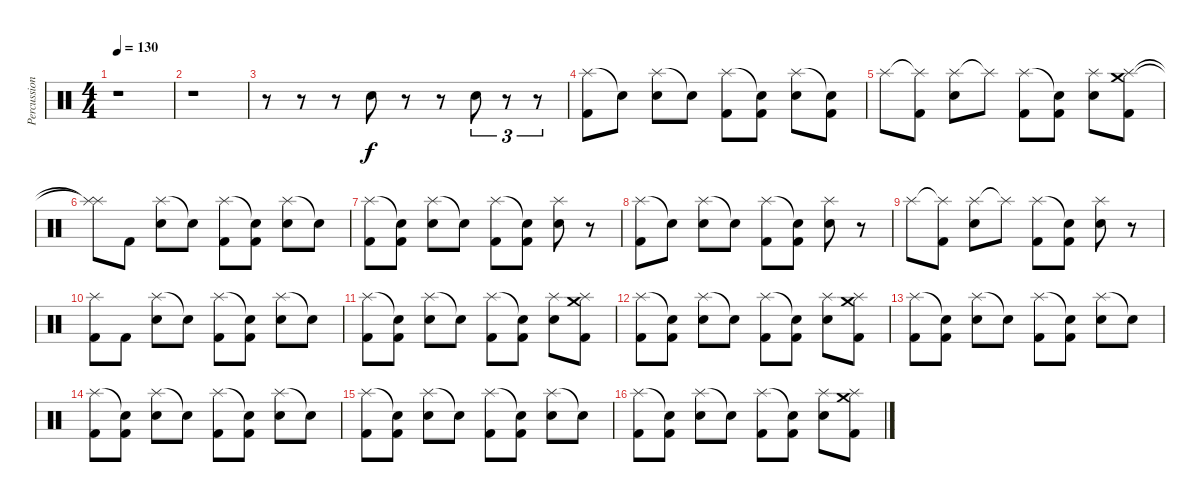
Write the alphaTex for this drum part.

\track ("Percussion" "Percussion") {instrument percussion}
\staff {score}
\articulation defaults
\ts (4 4)
\tempo 130
\clef neutral
\ks c
r.1{dy f} |
r.1 |
r.8 r.8 r.8 "Electric Snare (hit)".8 r.8 r.8 "Electric Snare (hit)".8{tu (3 2)} r.8{tu (3 2)} r.8{tu (3 2)} |
("Splash (hit)" "Kick (hit) 2").8 "Snare (hit)"{t}.8 ("Splash (hit)" "Electric Snare (hit)").8 "Snare (hit)"{t}.8 ("Splash (hit)" "Kick (hit) 2").8 ("Snare (hit)"{t} "Kick (hit) 2").8 ("Splash (hit)" "Electric Snare (hit)").8 ("Snare (hit)"{t} "Kick (hit) 2").8 |
"Splash (hit)".8 ("Splash (hit)"{t} "Kick (hit) 2").8 ("Splash (hit)" "Electric Snare (hit)").8 "Splash (hit)"{t}.8 ("Splash (hit)" "Kick (hit) 2").8 ("Snare (hit)"{t} "Kick (hit) 2").8 ("Splash (hit)" "Electric Snare (hit)").8 ("Crash medium (hit)" "Splash (hit)" "Kick (hit) 2").8 |
("Splash (hit)"{t} "Splash (hit)"{t}).8 "Kick (hit) 2".8 ("Splash (hit)" "Electric Snare (hit)").8 "Snare (hit)"{t}.8 ("Splash (hit)" "Kick (hit) 2").8 ("Snare (hit)"{t} "Kick (hit) 2").8 ("Splash (hit)" "Electric Snare (hit)").8 "Snare (hit)"{t}.8 |
("Splash (hit)" "Kick (hit) 2").8 ("Snare (hit)"{t} "Kick (hit) 2").8 ("Splash (hit)" "Electric Snare (hit)").8 "Snare (hit)"{t}.8 ("Splash (hit)" "Kick (hit) 2").8 ("Snare (hit)"{t} "Kick (hit) 2").8 ("Splash (hit)" "Electric Snare (hit)").8 r.8 |
("Splash (hit)" "Kick (hit) 2").8 "Snare (hit)"{t}.8 ("Splash (hit)" "Electric Snare (hit)").8 "Snare (hit)"{t}.8 ("Splash (hit)" "Kick (hit) 2").8 ("Snare (hit)"{t} "Kick (hit) 2").8 ("Splash (hit)" "Electric Snare (hit)").8 r.8 |
"Splash (hit)".8 ("Splash (hit)"{t} "Kick (hit) 2").8 ("Splash (hit)" "Electric Snare (hit)").8 "Splash (hit)"{t}.8 ("Splash (hit)" "Kick (hit) 2").8 ("Snare (hit)"{t} "Kick (hit) 2").8 ("Splash (hit)" "Electric Snare (hit)").8 r.8 |
("Splash (hit)" "Kick (hit) 2").8 "Kick (hit) 2".8 ("Splash (hit)" "Electric Snare (hit)").8 "Snare (hit)"{t}.8 ("Splash (hit)" "Kick (hit) 2").8 ("Snare (hit)"{t} "Kick (hit) 2").8 ("Splash (hit)" "Electric Snare (hit)").8 "Snare (hit)"{t}.8 |
("Splash (hit)" "Kick (hit) 2").8 ("Snare (hit)"{t} "Kick (hit) 2").8 ("Splash (hit)" "Electric Snare (hit)").8 "Snare (hit)"{t}.8 ("Splash (hit)" "Kick (hit) 2").8 ("Snare (hit)"{t} "Kick (hit) 2").8 ("Splash (hit)" "Electric Snare (hit)").8 ("Crash medium (hit)" "Splash (hit)" "Kick (hit) 2").8 |
("Splash (hit)" "Kick (hit) 2").8 ("Snare (hit)"{t} "Kick (hit) 2").8 ("Splash (hit)" "Electric Snare (hit)").8 "Snare (hit)"{t}.8 ("Splash (hit)" "Kick (hit) 2").8 ("Snare (hit)"{t} "Kick (hit) 2").8 ("Splash (hit)" "Electric Snare (hit)").8 ("Crash medium (hit)" "Splash (hit)" "Kick (hit) 2").8 |
("Splash (hit)" "Kick (hit) 2").8 ("Snare (hit)"{t} "Kick (hit) 2").8 ("Splash (hit)" "Electric Snare (hit)").8 "Snare (hit)"{t}.8 ("Splash (hit)" "Kick (hit) 2").8 ("Snare (hit)"{t} "Kick (hit) 2").8 ("Splash (hit)" "Electric Snare (hit)").8 "Snare (hit)"{t}.8 |
("Splash (hit)" "Kick (hit) 2").8 ("Snare (hit)"{t} "Kick (hit) 2").8 ("Splash (hit)" "Electric Snare (hit)").8 "Snare (hit)"{t}.8 ("Splash (hit)" "Kick (hit) 2").8 ("Snare (hit)"{t} "Kick (hit) 2").8 ("Splash (hit)" "Electric Snare (hit)").8 "Snare (hit)"{t}.8 |
("Splash (hit)" "Kick (hit) 2").8 ("Snare (hit)"{t} "Kick (hit) 2").8 ("Splash (hit)" "Electric Snare (hit)").8 "Snare (hit)"{t}.8 ("Splash (hit)" "Kick (hit) 2").8 ("Snare (hit)"{t} "Kick (hit) 2").8 ("Splash (hit)" "Electric Snare (hit)").8 "Snare (hit)"{t}.8 |
("Splash (hit)" "Kick (hit) 2").8 ("Snare (hit)"{t} "Kick (hit) 2").8 ("Splash (hit)" "Electric Snare (hit)").8 "Snare (hit)"{t}.8 ("Splash (hit)" "Kick (hit) 2").8 ("Snare (hit)"{t} "Kick (hit) 2").8 ("Splash (hit)" "Electric Snare (hit)").8 ("Crash medium (hit)" "Splash (hit)" "Kick (hit) 2").8
